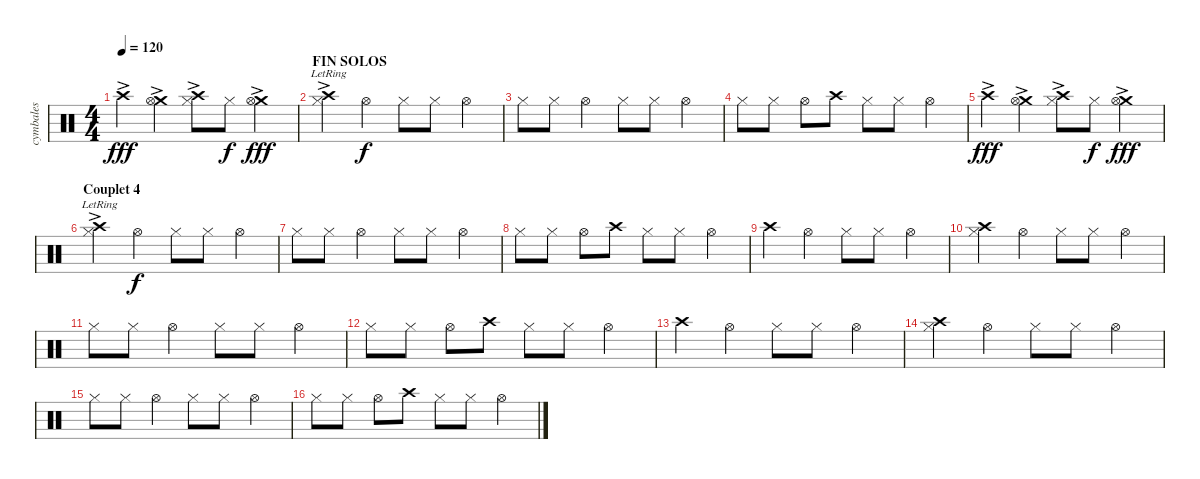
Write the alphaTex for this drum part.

\track ("cymbales" "cymbales") {instrument percussion}
\staff {score}
\articulation defaults
\ts (4 4)
\tempo 120
\clef neutral
\ks c "Crash high (hit)"{ac}.4{dy fff}
("Crash medium (hit)"{ac} "Hi-Hat (open)").4 ("Crash high (hit)"{ac} "Hi-Hat (closed)").8 "Hi-Hat (closed)".8{dy f} ("Crash medium (hit)"{ac} "Hi-Hat (open)").4{dy fff} |
\section ("" "FIN SOLOS")
("Crash high (hit)"{ac lr} "Hi-Hat (closed)").4 "Hi-Hat (open)".4{dy f} "Hi-Hat (closed)".8 "Hi-Hat (closed)".8 "Hi-Hat (open)".4 |
"Hi-Hat (closed)".8 "Hi-Hat (closed)".8 "Hi-Hat (open)".4 "Hi-Hat (closed)".8 "Hi-Hat (closed)".8 "Hi-Hat (open)".4 |
"Hi-Hat (closed)".8 "Hi-Hat (closed)".8 "Hi-Hat (open)".8 "Crash high (hit)".8 "Hi-Hat (closed)".8 "Hi-Hat (closed)".8 "Hi-Hat (open)".4 |
"Crash high (hit)"{ac}.4{dy fff} ("Crash medium (hit)"{ac} "Hi-Hat (open)").4 ("Crash high (hit)"{ac} "Hi-Hat (closed)").8 "Hi-Hat (closed)".8{dy f} ("Crash medium (hit)"{ac} "Hi-Hat (open)").4{dy fff} |
\section ("" "Couplet 4")
("Crash high (hit)"{ac lr} "Hi-Hat (closed)").4 "Hi-Hat (open)".4{dy f} "Hi-Hat (closed)".8 "Hi-Hat (closed)".8 "Hi-Hat (open)".4 |
"Hi-Hat (closed)".8 "Hi-Hat (closed)".8 "Hi-Hat (open)".4 "Hi-Hat (closed)".8 "Hi-Hat (closed)".8 "Hi-Hat (open)".4 |
"Hi-Hat (closed)".8 "Hi-Hat (closed)".8 "Hi-Hat (open)".8 "Crash high (hit)".8 "Hi-Hat (closed)".8 "Hi-Hat (closed)".8 "Hi-Hat (open)".4 |
"Crash high (hit)".4 "Hi-Hat (open)".4 "Hi-Hat (closed)".8 "Hi-Hat (closed)".8 "Hi-Hat (open)".4 |
("Crash high (hit)" "Hi-Hat (closed)").4 "Hi-Hat (open)".4 "Hi-Hat (closed)".8 "Hi-Hat (closed)".8 "Hi-Hat (open)".4 |
"Hi-Hat (closed)".8 "Hi-Hat (closed)".8 "Hi-Hat (open)".4 "Hi-Hat (closed)".8 "Hi-Hat (closed)".8 "Hi-Hat (open)".4 |
"Hi-Hat (closed)".8 "Hi-Hat (closed)".8 "Hi-Hat (open)".8 "Crash high (hit)".8 "Hi-Hat (closed)".8 "Hi-Hat (closed)".8 "Hi-Hat (open)".4 |
"Crash high (hit)".4 "Hi-Hat (open)".4 "Hi-Hat (closed)".8 "Hi-Hat (closed)".8 "Hi-Hat (open)".4 |
("Crash high (hit)" "Hi-Hat (closed)").4 "Hi-Hat (open)".4 "Hi-Hat (closed)".8 "Hi-Hat (closed)".8 "Hi-Hat (open)".4 |
"Hi-Hat (closed)".8 "Hi-Hat (closed)".8 "Hi-Hat (open)".4 "Hi-Hat (closed)".8 "Hi-Hat (closed)".8 "Hi-Hat (open)".4 |
"Hi-Hat (closed)".8 "Hi-Hat (closed)".8 "Hi-Hat (open)".8 "Crash high (hit)".8 "Hi-Hat (closed)".8 "Hi-Hat (closed)".8 "Hi-Hat (open)".4
